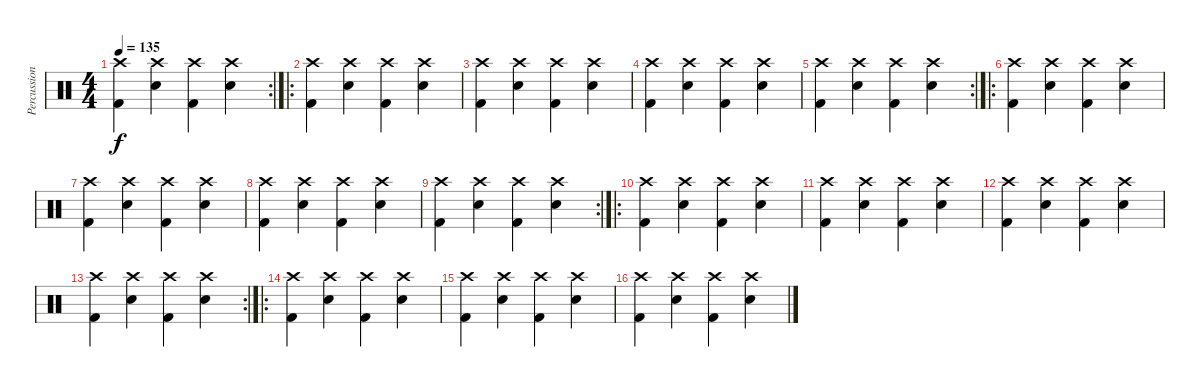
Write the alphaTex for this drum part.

\track ("Percussion" "Percussion") {instrument percussion}
\staff {score}
\articulation defaults
\rc 2
\ts (4 4)
\tempo 135
\clef neutral
\ks c
("Kick (hit) 2" "Crash high (hit)").4{dy f} ("Electric Snare (hit)" "Crash high (hit)").4 ("Kick (hit) 2" "Crash high (hit)").4 ("Electric Snare (hit)" "Crash high (hit)").4 |
\ro
("Kick (hit) 2" "Crash high (hit)").4 ("Electric Snare (hit)" "Crash high (hit)").4 ("Kick (hit) 2" "Crash high (hit)").4 ("Electric Snare (hit)" "Crash high (hit)").4 |
("Kick (hit) 2" "Crash high (hit)").4 ("Electric Snare (hit)" "Crash high (hit)").4 ("Kick (hit) 2" "Crash high (hit)").4 ("Electric Snare (hit)" "Crash high (hit)").4 |
("Kick (hit) 2" "Crash high (hit)").4 ("Electric Snare (hit)" "Crash high (hit)").4 ("Kick (hit) 2" "Crash high (hit)").4 ("Electric Snare (hit)" "Crash high (hit)").4 |
\rc 2
("Kick (hit) 2" "Crash high (hit)").4 ("Electric Snare (hit)" "Crash high (hit)").4 ("Kick (hit) 2" "Crash high (hit)").4 ("Electric Snare (hit)" "Crash high (hit)").4 |
\ro
("Kick (hit) 2" "Crash high (hit)").4 ("Electric Snare (hit)" "Crash high (hit)").4 ("Kick (hit) 2" "Crash high (hit)").4 ("Electric Snare (hit)" "Crash high (hit)").4 |
("Kick (hit) 2" "Crash high (hit)").4 ("Electric Snare (hit)" "Crash high (hit)").4 ("Kick (hit) 2" "Crash high (hit)").4 ("Electric Snare (hit)" "Crash high (hit)").4 |
("Kick (hit) 2" "Crash high (hit)").4 ("Electric Snare (hit)" "Crash high (hit)").4 ("Kick (hit) 2" "Crash high (hit)").4 ("Electric Snare (hit)" "Crash high (hit)").4 |
\rc 2
("Kick (hit) 2" "Crash high (hit)").4 ("Electric Snare (hit)" "Crash high (hit)").4 ("Kick (hit) 2" "Crash high (hit)").4 ("Electric Snare (hit)" "Crash high (hit)").4 |
\ro
("Kick (hit) 2" "Crash high (hit)").4 ("Electric Snare (hit)" "Crash high (hit)").4 ("Kick (hit) 2" "Crash high (hit)").4 ("Electric Snare (hit)" "Crash high (hit)").4 |
("Kick (hit) 2" "Crash high (hit)").4 ("Electric Snare (hit)" "Crash high (hit)").4 ("Kick (hit) 2" "Crash high (hit)").4 ("Electric Snare (hit)" "Crash high (hit)").4 |
("Kick (hit) 2" "Crash high (hit)").4 ("Electric Snare (hit)" "Crash high (hit)").4 ("Kick (hit) 2" "Crash high (hit)").4 ("Electric Snare (hit)" "Crash high (hit)").4 |
\rc 2
("Kick (hit) 2" "Crash high (hit)").4 ("Electric Snare (hit)" "Crash high (hit)").4 ("Kick (hit) 2" "Crash high (hit)").4 ("Electric Snare (hit)" "Crash high (hit)").4 |
\ro
("Kick (hit) 2" "Crash high (hit)").4 ("Electric Snare (hit)" "Crash high (hit)").4 ("Kick (hit) 2" "Crash high (hit)").4 ("Electric Snare (hit)" "Crash high (hit)").4 |
("Kick (hit) 2" "Crash high (hit)").4 ("Electric Snare (hit)" "Crash high (hit)").4 ("Kick (hit) 2" "Crash high (hit)").4 ("Electric Snare (hit)" "Crash high (hit)").4 |
("Kick (hit) 2" "Crash high (hit)").4 ("Electric Snare (hit)" "Crash high (hit)").4 ("Kick (hit) 2" "Crash high (hit)").4 ("Electric Snare (hit)" "Crash high (hit)").4
